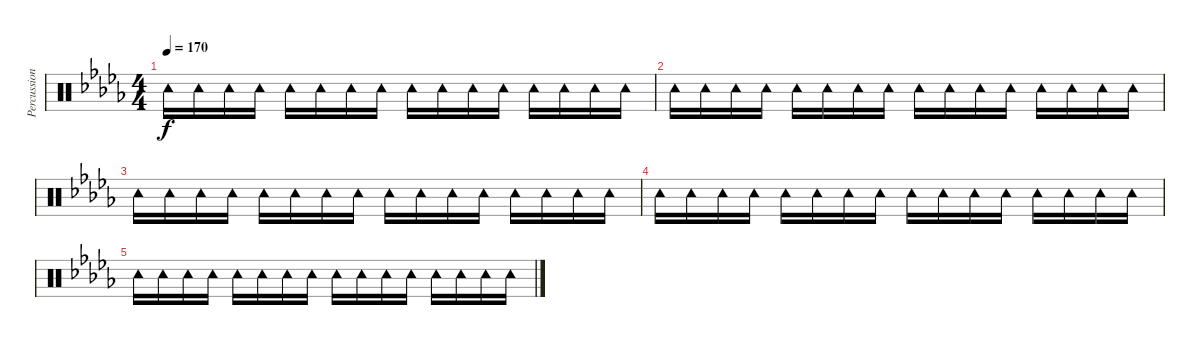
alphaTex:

\track ("Percussion" "Percussion") {instrument percussion}
\staff {score}
\articulation defaults
\ts (4 4)
\tempo 170
\clef neutral
\ks db "Tambourine (hit)".16{dy f} "Tambourine (hit)".16 "Tambourine (hit)".16 "Tambourine (hit)".16 "Tambourine (hit)".16 "Tambourine (hit)".16 "Tambourine (hit)".16 "Tambourine (hit)".16 "Tambourine (hit)".16 "Tambourine (hit)".16 "Tambourine (hit)".16 "Tambourine (hit)".16 "Tambourine (hit)".16 "Tambourine (hit)".16 "Tambourine (hit)".16 "Tambourine (hit)".16
|
"Tambourine (hit)".16 "Tambourine (hit)".16 "Tambourine (hit)".16 "Tambourine (hit)".16 "Tambourine (hit)".16 "Tambourine (hit)".16 "Tambourine (hit)".16 "Tambourine (hit)".16 "Tambourine (hit)".16 "Tambourine (hit)".16 "Tambourine (hit)".16 "Tambourine (hit)".16 "Tambourine (hit)".16 "Tambourine (hit)".16 "Tambourine (hit)".16 "Tambourine (hit)".16 |
"Tambourine (hit)".16 "Tambourine (hit)".16 "Tambourine (hit)".16 "Tambourine (hit)".16 "Tambourine (hit)".16 "Tambourine (hit)".16 "Tambourine (hit)".16 "Tambourine (hit)".16 "Tambourine (hit)".16 "Tambourine (hit)".16 "Tambourine (hit)".16 "Tambourine (hit)".16 "Tambourine (hit)".16 "Tambourine (hit)".16 "Tambourine (hit)".16 "Tambourine (hit)".16 |
"Tambourine (hit)".16 "Tambourine (hit)".16 "Tambourine (hit)".16 "Tambourine (hit)".16 "Tambourine (hit)".16 "Tambourine (hit)".16 "Tambourine (hit)".16 "Tambourine (hit)".16 "Tambourine (hit)".16 "Tambourine (hit)".16 "Tambourine (hit)".16 "Tambourine (hit)".16 "Tambourine (hit)".16 "Tambourine (hit)".16 "Tambourine (hit)".16 "Tambourine (hit)".16 |
"Tambourine (hit)".16 "Tambourine (hit)".16 "Tambourine (hit)".16 "Tambourine (hit)".16 "Tambourine (hit)".16 "Tambourine (hit)".16 "Tambourine (hit)".16 "Tambourine (hit)".16 "Tambourine (hit)".16 "Tambourine (hit)".16 "Tambourine (hit)".16 "Tambourine (hit)".16 "Tambourine (hit)".16 "Tambourine (hit)".16 "Tambourine (hit)".16 "Tambourine (hit)".16
